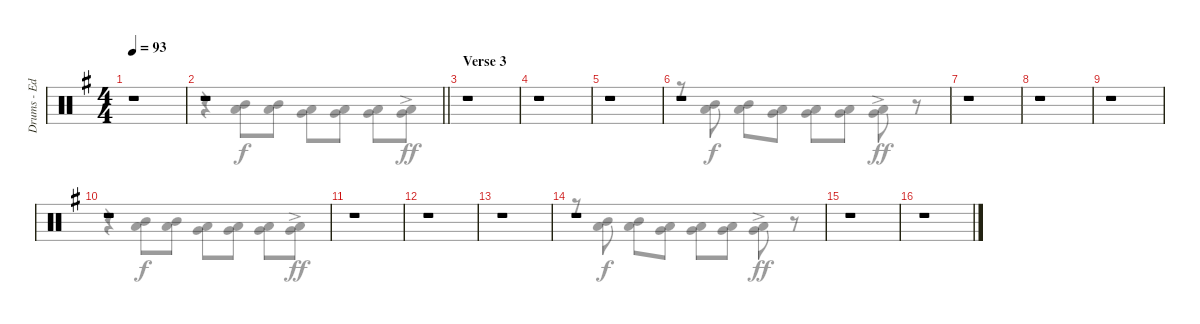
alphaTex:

\track ("Drums - Ed Warby" "Drums - Ed") {instrument percussion}
\staff {score}
\articulation defaults
\voice
\ts (4 4)
\tempo 93
\clef neutral
\ks eminor
r.1{dy mf} |
\barLineRight lightlight
r.1 |
\section ("" "Verse 3")
r.1 |
r.1 |
r.1 |
r.1 |
r.1 |
r.1 |
r.1 |
r.1 |
r.1 |
r.1 |
r.1 |
r.1 |
r.1 |
r.1
\voice
\clef neutral
\ottava regular
\simile none
\ks eminor
|
\barLineRight lightlight
r.4 ("Mid Tom (hit)" "Low Tom (hit)").8{dy f} ("Mid Tom (hit)" "Low Tom (hit)").8 ("Low Tom (hit)" "Very Low Tom (hit)").8 ("Low Tom (hit)" "Very Low Tom (hit)").8 ("Very Low Tom (hit)" "Low Floor Tom (hit)").8 ("Very Low Tom (hit)"{ac} "Low Floor Tom (hit)"{ac}).8{dy ff} |
|
|
|
r.8 ("Mid Tom (hit)" "Low Tom (hit)").8{dy f} ("Mid Tom (hit)" "Low Tom (hit)").8 ("Low Tom (hit)" "Very Low Tom (hit)").8 ("Low Tom (hit)" "Very Low Tom (hit)").8 ("Very Low Tom (hit)" "Low Floor Tom (hit)").8 ("Very Low Tom (hit)"{ac} "Low Floor Tom (hit)"{ac}).8{dy ff} r.8 |
|
|
|
r.4 ("Mid Tom (hit)" "Low Tom (hit)").8{dy f} ("Mid Tom (hit)" "Low Tom (hit)").8 ("Low Tom (hit)" "Very Low Tom (hit)").8 ("Low Tom (hit)" "Very Low Tom (hit)").8 ("Very Low Tom (hit)" "Low Floor Tom (hit)").8 ("Very Low Tom (hit)"{ac} "Low Floor Tom (hit)"{ac}).8{dy ff} |
|
|
|
r.8 ("Mid Tom (hit)" "Low Tom (hit)").8{dy f} ("Mid Tom (hit)" "Low Tom (hit)").8 ("Low Tom (hit)" "Very Low Tom (hit)").8 ("Low Tom (hit)" "Very Low Tom (hit)").8 ("Very Low Tom (hit)" "Low Floor Tom (hit)").8 ("Very Low Tom (hit)"{ac} "Low Floor Tom (hit)"{ac}).8{dy ff} r.8 |
|
